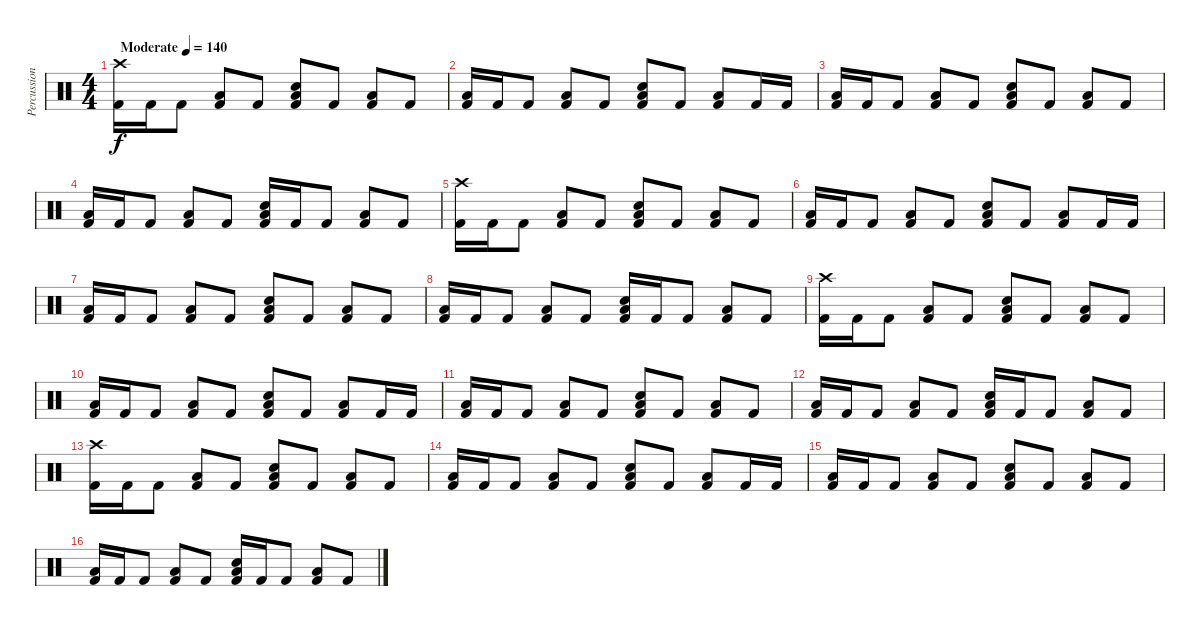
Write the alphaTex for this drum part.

\track ("Percussion" "Percussion") {instrument percussion}
\staff {score}
\articulation defaults
\ts (4 4)
\tempo (140 "Moderate")
\clef neutral
\ks c
("Crash high (hit)" "Kick (hit) 2").16{dy f} "Kick (hit) 2".16 "Kick (hit) 2".8 ("Low Floor Tom (hit)" "Kick (hit) 2").8 "Kick (hit) 2".8 ("Low Floor Tom (hit)" "Electric Snare (hit)" "Kick (hit) 2").8 "Kick (hit) 2".8 ("Low Floor Tom (hit)" "Kick (hit) 2").8 "Kick (hit) 2".8 |
("Low Floor Tom (hit)" "Kick (hit) 2").16 "Kick (hit) 2".16 "Kick (hit) 2".8 ("Low Floor Tom (hit)" "Kick (hit) 2").8 "Kick (hit) 2".8 ("Low Floor Tom (hit)" "Electric Snare (hit)" "Kick (hit) 2").8 "Kick (hit) 2".8 ("Low Floor Tom (hit)" "Kick (hit) 2").8 "Kick (hit) 2".16 "Kick (hit) 2".16 |
("Low Floor Tom (hit)" "Kick (hit) 2").16 "Kick (hit) 2".16 "Kick (hit) 2".8 ("Low Floor Tom (hit)" "Kick (hit) 2").8 "Kick (hit) 2".8 ("Low Floor Tom (hit)" "Electric Snare (hit)" "Kick (hit) 2").8 "Kick (hit) 2".8 ("Low Floor Tom (hit)" "Kick (hit) 2").8 "Kick (hit) 2".8 |
("Low Floor Tom (hit)" "Kick (hit) 2").16 "Kick (hit) 2".16 "Kick (hit) 2".8 ("Low Floor Tom (hit)" "Kick (hit) 2").8 "Kick (hit) 2".8 ("Low Floor Tom (hit)" "Electric Snare (hit)" "Kick (hit) 2").16 "Kick (hit) 2".16 "Kick (hit) 2".8 ("Low Floor Tom (hit)" "Kick (hit) 2").8 "Kick (hit) 2".8 |
("Crash high (hit)" "Kick (hit) 2").16 "Kick (hit) 2".16 "Kick (hit) 2".8 ("Low Floor Tom (hit)" "Kick (hit) 2").8 "Kick (hit) 2".8 ("Low Floor Tom (hit)" "Electric Snare (hit)" "Kick (hit) 2").8 "Kick (hit) 2".8 ("Low Floor Tom (hit)" "Kick (hit) 2").8 "Kick (hit) 2".8 |
("Low Floor Tom (hit)" "Kick (hit) 2").16 "Kick (hit) 2".16 "Kick (hit) 2".8 ("Low Floor Tom (hit)" "Kick (hit) 2").8 "Kick (hit) 2".8 ("Low Floor Tom (hit)" "Electric Snare (hit)" "Kick (hit) 2").8 "Kick (hit) 2".8 ("Low Floor Tom (hit)" "Kick (hit) 2").8 "Kick (hit) 2".16 "Kick (hit) 2".16 |
("Low Floor Tom (hit)" "Kick (hit) 2").16 "Kick (hit) 2".16 "Kick (hit) 2".8 ("Low Floor Tom (hit)" "Kick (hit) 2").8 "Kick (hit) 2".8 ("Low Floor Tom (hit)" "Electric Snare (hit)" "Kick (hit) 2").8 "Kick (hit) 2".8 ("Low Floor Tom (hit)" "Kick (hit) 2").8 "Kick (hit) 2".8 |
("Low Floor Tom (hit)" "Kick (hit) 2").16 "Kick (hit) 2".16 "Kick (hit) 2".8 ("Low Floor Tom (hit)" "Kick (hit) 2").8 "Kick (hit) 2".8 ("Low Floor Tom (hit)" "Electric Snare (hit)" "Kick (hit) 2").16 "Kick (hit) 2".16 "Kick (hit) 2".8 ("Low Floor Tom (hit)" "Kick (hit) 2").8 "Kick (hit) 2".8 |
("Crash high (hit)" "Kick (hit) 2").16 "Kick (hit) 2".16 "Kick (hit) 2".8 ("Low Floor Tom (hit)" "Kick (hit) 2").8 "Kick (hit) 2".8 ("Low Floor Tom (hit)" "Electric Snare (hit)" "Kick (hit) 2").8 "Kick (hit) 2".8 ("Low Floor Tom (hit)" "Kick (hit) 2").8 "Kick (hit) 2".8 |
("Low Floor Tom (hit)" "Kick (hit) 2").16 "Kick (hit) 2".16 "Kick (hit) 2".8 ("Low Floor Tom (hit)" "Kick (hit) 2").8 "Kick (hit) 2".8 ("Low Floor Tom (hit)" "Electric Snare (hit)" "Kick (hit) 2").8 "Kick (hit) 2".8 ("Low Floor Tom (hit)" "Kick (hit) 2").8 "Kick (hit) 2".16 "Kick (hit) 2".16 |
("Low Floor Tom (hit)" "Kick (hit) 2").16 "Kick (hit) 2".16 "Kick (hit) 2".8 ("Low Floor Tom (hit)" "Kick (hit) 2").8 "Kick (hit) 2".8 ("Low Floor Tom (hit)" "Electric Snare (hit)" "Kick (hit) 2").8 "Kick (hit) 2".8 ("Low Floor Tom (hit)" "Kick (hit) 2").8 "Kick (hit) 2".8 |
("Low Floor Tom (hit)" "Kick (hit) 2").16 "Kick (hit) 2".16 "Kick (hit) 2".8 ("Low Floor Tom (hit)" "Kick (hit) 2").8 "Kick (hit) 2".8 ("Low Floor Tom (hit)" "Electric Snare (hit)" "Kick (hit) 2").16 "Kick (hit) 2".16 "Kick (hit) 2".8 ("Low Floor Tom (hit)" "Kick (hit) 2").8 "Kick (hit) 2".8 |
("Crash high (hit)" "Kick (hit) 2").16 "Kick (hit) 2".16 "Kick (hit) 2".8 ("Low Floor Tom (hit)" "Kick (hit) 2").8 "Kick (hit) 2".8 ("Low Floor Tom (hit)" "Electric Snare (hit)" "Kick (hit) 2").8 "Kick (hit) 2".8 ("Low Floor Tom (hit)" "Kick (hit) 2").8 "Kick (hit) 2".8 |
("Low Floor Tom (hit)" "Kick (hit) 2").16 "Kick (hit) 2".16 "Kick (hit) 2".8 ("Low Floor Tom (hit)" "Kick (hit) 2").8 "Kick (hit) 2".8 ("Low Floor Tom (hit)" "Electric Snare (hit)" "Kick (hit) 2").8 "Kick (hit) 2".8 ("Low Floor Tom (hit)" "Kick (hit) 2").8 "Kick (hit) 2".16 "Kick (hit) 2".16 |
("Low Floor Tom (hit)" "Kick (hit) 2").16 "Kick (hit) 2".16 "Kick (hit) 2".8 ("Low Floor Tom (hit)" "Kick (hit) 2").8 "Kick (hit) 2".8 ("Low Floor Tom (hit)" "Electric Snare (hit)" "Kick (hit) 2").8 "Kick (hit) 2".8 ("Low Floor Tom (hit)" "Kick (hit) 2").8 "Kick (hit) 2".8 |
("Low Floor Tom (hit)" "Kick (hit) 2").16 "Kick (hit) 2".16 "Kick (hit) 2".8 ("Low Floor Tom (hit)" "Kick (hit) 2").8 "Kick (hit) 2".8 ("Low Floor Tom (hit)" "Electric Snare (hit)" "Kick (hit) 2").16 "Kick (hit) 2".16 "Kick (hit) 2".8 ("Low Floor Tom (hit)" "Kick (hit) 2").8 "Kick (hit) 2".8
